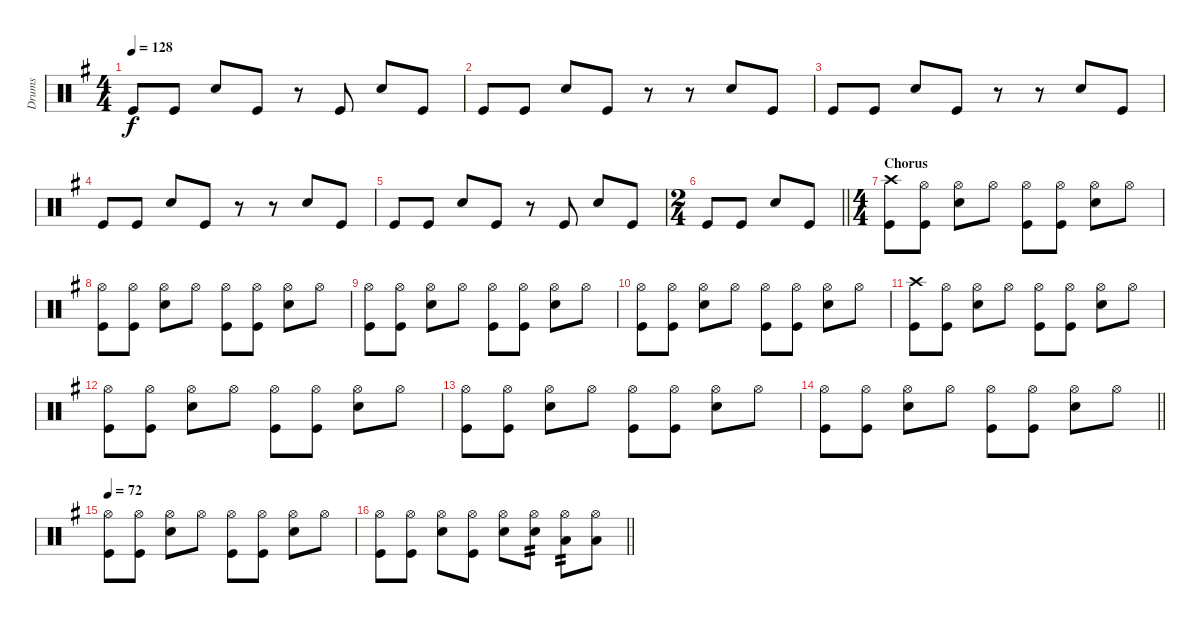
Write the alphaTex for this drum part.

\track ("Drums" "Drums") {instrument percussion}
\staff {score}
\articulation defaults
\ts (4 4)
\tempo 128
\clef neutral
\ks g "Kick (hit)".8{dy f} "Kick (hit)".8 "Electric Snare (hit)".8 "Kick (hit)".8
r.8 "Kick (hit)".8 "Electric Snare (hit)".8 "Kick (hit)".8 |
"Kick (hit)".8 "Kick (hit)".8 "Electric Snare (hit)".8 "Kick (hit)".8 r.8 r.8 "Electric Snare (hit)".8 "Kick (hit)".8 |
"Kick (hit)".8 "Kick (hit)".8 "Electric Snare (hit)".8 "Kick (hit)".8 r.8 r.8 "Electric Snare (hit)".8 "Kick (hit)".8 |
"Kick (hit)".8 "Kick (hit)".8 "Electric Snare (hit)".8 "Kick (hit)".8 r.8 r.8 "Electric Snare (hit)".8 "Kick (hit)".8 |
"Kick (hit)".8 "Kick (hit)".8 "Electric Snare (hit)".8 "Kick (hit)".8 r.8 "Kick (hit)".8 "Electric Snare (hit)".8 "Kick (hit)".8 |
\ts (2 4)
\barLineRight lightlight "Kick (hit)".8 "Kick (hit)".8 "Electric Snare (hit)".8 "Kick (hit)".8
|
\ts (4 4)
\section ("" "Chorus")
("Crash high (hit)" "Kick (hit)").8 ("Hi-Hat (open)" "Kick (hit)").8 ("Hi-Hat (open)" "Electric Snare (hit)").8 "Hi-Hat (open)".8 ("Hi-Hat (open)" "Kick (hit)").8 ("Hi-Hat (open)" "Kick (hit)").8 ("Hi-Hat (open)" "Electric Snare (hit)").8 "Hi-Hat (open)".8 |
("Hi-Hat (open)" "Kick (hit)").8 ("Hi-Hat (open)" "Kick (hit)").8 ("Hi-Hat (open)" "Electric Snare (hit)").8 "Hi-Hat (open)".8 ("Hi-Hat (open)" "Kick (hit)").8 ("Hi-Hat (open)" "Kick (hit)").8 ("Hi-Hat (open)" "Electric Snare (hit)").8 "Hi-Hat (open)".8 |
("Hi-Hat (open)" "Kick (hit)").8 ("Hi-Hat (open)" "Kick (hit)").8 ("Hi-Hat (open)" "Electric Snare (hit)").8 "Hi-Hat (open)".8 ("Hi-Hat (open)" "Kick (hit)").8 ("Hi-Hat (open)" "Kick (hit)").8 ("Hi-Hat (open)" "Electric Snare (hit)").8 "Hi-Hat (open)".8 |
("Hi-Hat (open)" "Kick (hit)").8 ("Hi-Hat (open)" "Kick (hit)").8 ("Hi-Hat (open)" "Electric Snare (hit)").8 "Hi-Hat (open)".8 ("Hi-Hat (open)" "Kick (hit)").8 ("Hi-Hat (open)" "Kick (hit)").8 ("Hi-Hat (open)" "Electric Snare (hit)").8 "Hi-Hat (open)".8 |
("Crash high (hit)" "Kick (hit)").8 ("Hi-Hat (open)" "Kick (hit)").8 ("Hi-Hat (open)" "Electric Snare (hit)").8 "Hi-Hat (open)".8 ("Hi-Hat (open)" "Kick (hit)").8 ("Hi-Hat (open)" "Kick (hit)").8 ("Hi-Hat (open)" "Electric Snare (hit)").8 "Hi-Hat (open)".8 |
("Hi-Hat (open)" "Kick (hit)").8 ("Hi-Hat (open)" "Kick (hit)").8 ("Hi-Hat (open)" "Electric Snare (hit)").8 "Hi-Hat (open)".8 ("Hi-Hat (open)" "Kick (hit)").8 ("Hi-Hat (open)" "Kick (hit)").8 ("Hi-Hat (open)" "Electric Snare (hit)").8 "Hi-Hat (open)".8 |
("Hi-Hat (open)" "Kick (hit)").8 ("Hi-Hat (open)" "Kick (hit)").8 ("Hi-Hat (open)" "Electric Snare (hit)").8 "Hi-Hat (open)".8 ("Hi-Hat (open)" "Kick (hit)").8 ("Hi-Hat (open)" "Kick (hit)").8 ("Hi-Hat (open)" "Electric Snare (hit)").8 "Hi-Hat (open)".8 |
\barLineRight lightlight
("Hi-Hat (open)" "Kick (hit)").8 ("Hi-Hat (open)" "Kick (hit)").8 ("Hi-Hat (open)" "Electric Snare (hit)").8 "Hi-Hat (open)".8 ("Hi-Hat (open)" "Kick (hit)").8 ("Hi-Hat (open)" "Kick (hit)").8 ("Hi-Hat (open)" "Electric Snare (hit)").8 "Hi-Hat (open)".8 |
\tempo 72
("Hi-Hat (open)" "Kick (hit)").8 ("Hi-Hat (open)" "Kick (hit)").8 ("Hi-Hat (open)" "Electric Snare (hit)").8 "Hi-Hat (open)".8 ("Hi-Hat (open)" "Kick (hit)").8 ("Hi-Hat (open)" "Kick (hit)").8 ("Hi-Hat (open)" "Electric Snare (hit)").8 "Hi-Hat (open)".8 |
\barLineRight lightlight
("Hi-Hat (open)" "Kick (hit)").8 ("Hi-Hat (open)" "Kick (hit)").8 ("Hi-Hat (open)" "Electric Snare (hit)").8 ("Hi-Hat (open)" "Kick (hit)").8 ("Hi-Hat (open)" "Electric Snare (hit)").8 ("Hi-Hat (open)" "Electric Snare (hit)").8{tp 2} ("Hi-Hat (open)" "Low Floor Tom (hit)").8{tp 2} ("Hi-Hat (open)" "Low Floor Tom (hit)").8
